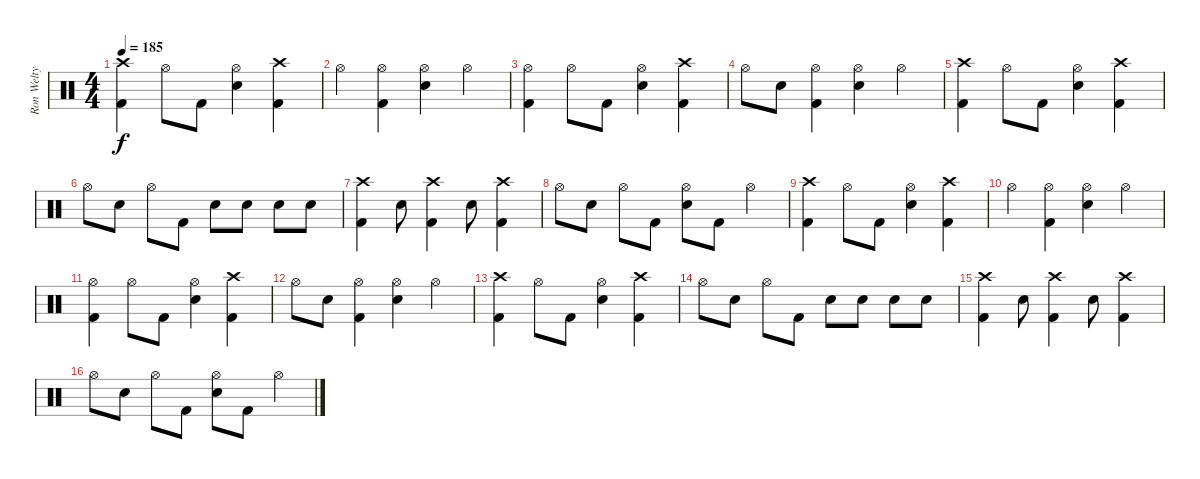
\track ("Ron Welty" "Ron Welty") {instrument percussion}
\staff {score}
\articulation defaults
\ts (4 4)
\tempo 185
\clef neutral
\ks c
("Crash high (hit)" "Kick (hit) 2").4{dy f} "Hi-Hat (open)".8 "Kick (hit) 2".8 ("Hi-Hat (open)" "Electric Snare (hit)").4 ("Crash high (hit)" "Kick (hit) 2").4 |
"Hi-Hat (open)".4 ("Hi-Hat (open)" "Kick (hit) 2").4 ("Hi-Hat (open)" "Electric Snare (hit)").4 "Hi-Hat (open)".4 |
("Hi-Hat (open)" "Kick (hit) 2").4 "Hi-Hat (open)".8 "Kick (hit) 2".8 ("Hi-Hat (open)" "Electric Snare (hit)").4 ("Crash high (hit)" "Kick (hit) 2").4 |
"Hi-Hat (open)".8 "Electric Snare (hit)".8 ("Hi-Hat (open)" "Kick (hit) 2").4 ("Hi-Hat (open)" "Electric Snare (hit)").4 "Hi-Hat (open)".4 |
("Crash high (hit)" "Kick (hit) 2").4 "Hi-Hat (open)".8 "Kick (hit) 2".8 ("Hi-Hat (open)" "Electric Snare (hit)").4 ("Crash high (hit)" "Kick (hit) 2").4 |
"Hi-Hat (open)".8 "Electric Snare (hit)".8 "Hi-Hat (open)".8 "Kick (hit) 2".8 "Electric Snare (hit)".8 "Electric Snare (hit)".8 "Electric Snare (hit)".8 "Electric Snare (hit)".8 |
("Crash high (hit)" "Kick (hit) 2").4 "Electric Snare (hit)".8 ("Crash high (hit)" "Kick (hit) 2").4 "Electric Snare (hit)".8 ("Crash high (hit)" "Kick (hit) 2").4 |
"Hi-Hat (open)".8 "Electric Snare (hit)".8 "Hi-Hat (open)".8 "Kick (hit) 2".8 ("Hi-Hat (open)" "Electric Snare (hit)").8 "Kick (hit) 2".8 "Hi-Hat (open)".4 |
("Crash high (hit)" "Kick (hit) 2").4 "Hi-Hat (open)".8 "Kick (hit) 2".8 ("Hi-Hat (open)" "Electric Snare (hit)").4 ("Crash high (hit)" "Kick (hit) 2").4 |
"Hi-Hat (open)".4 ("Hi-Hat (open)" "Kick (hit) 2").4 ("Hi-Hat (open)" "Electric Snare (hit)").4 "Hi-Hat (open)".4 |
("Hi-Hat (open)" "Kick (hit) 2").4 "Hi-Hat (open)".8 "Kick (hit) 2".8 ("Hi-Hat (open)" "Electric Snare (hit)").4 ("Crash high (hit)" "Kick (hit) 2").4 |
"Hi-Hat (open)".8 "Electric Snare (hit)".8 ("Hi-Hat (open)" "Kick (hit) 2").4 ("Hi-Hat (open)" "Electric Snare (hit)").4 "Hi-Hat (open)".4 |
("Crash high (hit)" "Kick (hit) 2").4 "Hi-Hat (open)".8 "Kick (hit) 2".8 ("Hi-Hat (open)" "Electric Snare (hit)").4 ("Crash high (hit)" "Kick (hit) 2").4 |
"Hi-Hat (open)".8 "Electric Snare (hit)".8 "Hi-Hat (open)".8 "Kick (hit) 2".8 "Electric Snare (hit)".8 "Electric Snare (hit)".8 "Electric Snare (hit)".8 "Electric Snare (hit)".8 |
("Crash high (hit)" "Kick (hit) 2").4 "Electric Snare (hit)".8 ("Crash high (hit)" "Kick (hit) 2").4 "Electric Snare (hit)".8 ("Crash high (hit)" "Kick (hit) 2").4 |
"Hi-Hat (open)".8 "Electric Snare (hit)".8 "Hi-Hat (open)".8 "Kick (hit) 2".8 ("Hi-Hat (open)" "Electric Snare (hit)").8 "Kick (hit) 2".8 "Hi-Hat (open)".4
